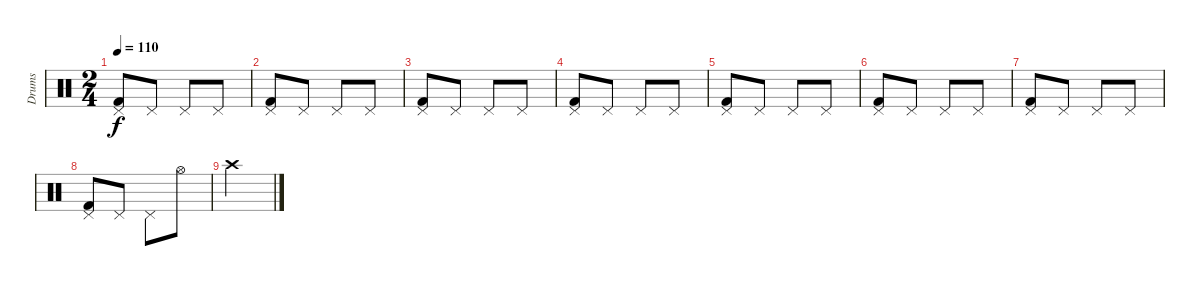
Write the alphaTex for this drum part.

\track ("Drums" "Drums") {instrument percussion}
\staff {score}
\articulation defaults
\ts (2 4)
\tempo 110
\clef neutral
\ks c
("Kick (hit) 2" "Pedal Hi-Hat (hit)").8{dy f} "Pedal Hi-Hat (hit)".8 "Pedal Hi-Hat (hit)".8 "Pedal Hi-Hat (hit)".8 |
("Kick (hit) 2" "Pedal Hi-Hat (hit)").8 "Pedal Hi-Hat (hit)".8 "Pedal Hi-Hat (hit)".8 "Pedal Hi-Hat (hit)".8 |
("Kick (hit) 2" "Pedal Hi-Hat (hit)").8 "Pedal Hi-Hat (hit)".8 "Pedal Hi-Hat (hit)".8 "Pedal Hi-Hat (hit)".8 |
("Kick (hit) 2" "Pedal Hi-Hat (hit)").8 "Pedal Hi-Hat (hit)".8 "Pedal Hi-Hat (hit)".8 "Pedal Hi-Hat (hit)".8 |
("Kick (hit) 2" "Pedal Hi-Hat (hit)").8 "Pedal Hi-Hat (hit)".8 "Pedal Hi-Hat (hit)".8 "Pedal Hi-Hat (hit)".8 |
("Kick (hit) 2" "Pedal Hi-Hat (hit)").8 "Pedal Hi-Hat (hit)".8 "Pedal Hi-Hat (hit)".8 "Pedal Hi-Hat (hit)".8 |
("Kick (hit) 2" "Pedal Hi-Hat (hit)").8 "Pedal Hi-Hat (hit)".8 "Pedal Hi-Hat (hit)".8 "Pedal Hi-Hat (hit)".8 |
("Kick (hit) 2" "Pedal Hi-Hat (hit)").8 "Pedal Hi-Hat (hit)".8 "Pedal Hi-Hat (hit)".8 "Hi-Hat (open)".8 |
"Crash high (hit)".2
